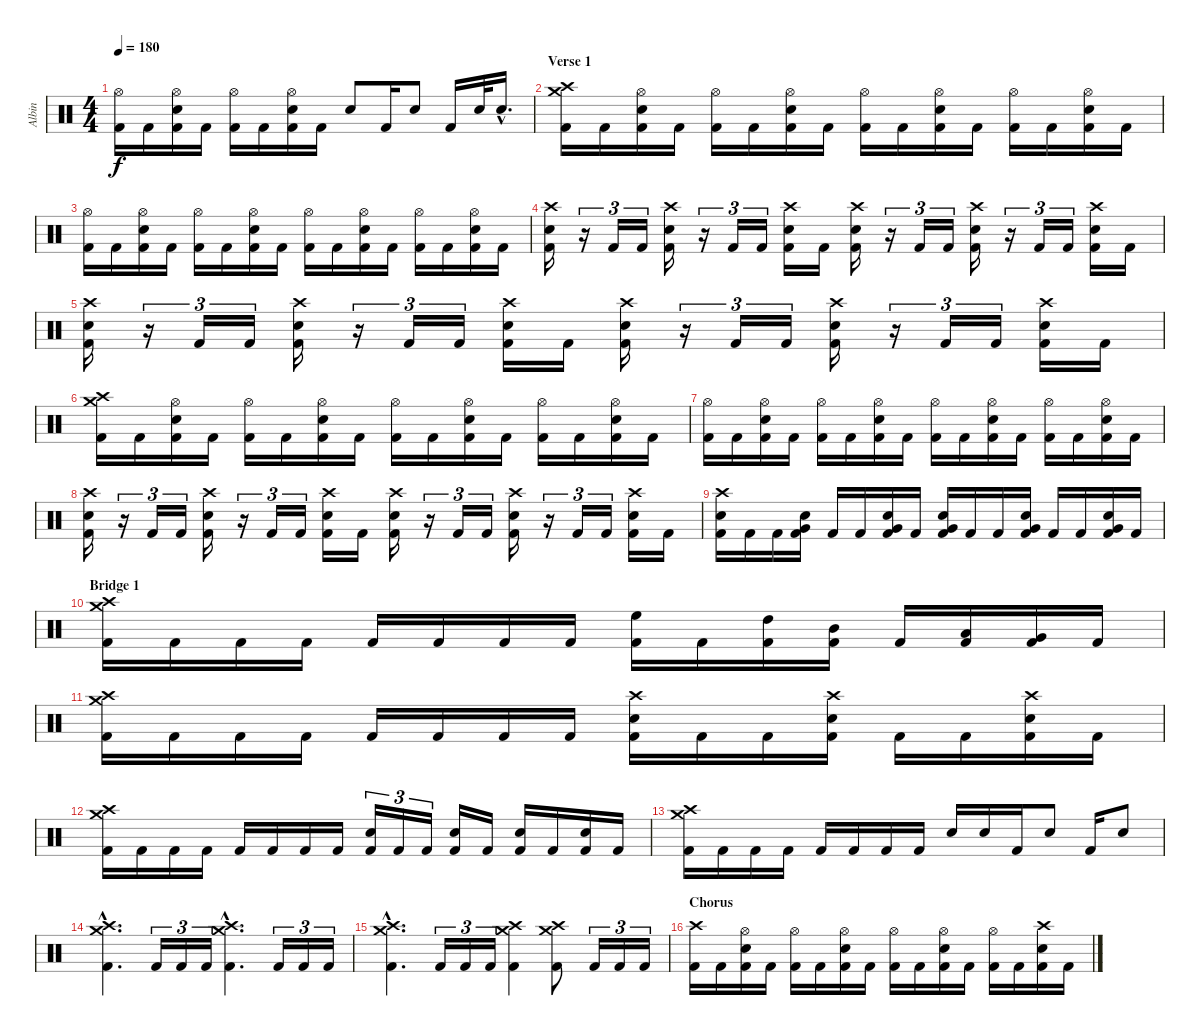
\track ("Albin" "Albin") {instrument percussion}
\staff {score}
\articulation defaults
\ts (4 4)
\tempo 180
\clef neutral
\ks c
("Kick (hit) 2" "Hi-Hat (open)").16{dy f} "Kick (hit) 2".16 ("Kick (hit) 2" "Electric Snare (hit)" "Hi-Hat (open)").16 "Kick (hit) 2".16 ("Kick (hit) 2" "Hi-Hat (open)").16 "Kick (hit) 2".16 ("Kick (hit) 2" "Electric Snare (hit)" "Hi-Hat (open)").16 "Kick (hit) 2".16 "Electric Snare (hit)".8 "Kick (hit) 2".16 "Electric Snare (hit)".8 "Kick (hit) 2".16 "Electric Snare (hit)".32 "Electric Snare (hit)"{hac}.16{d} |
\section ("" "Verse 1")
("Kick (hit) 2" "Crash high (hit)" "Crash medium (hit)").16 "Kick (hit) 2".16 ("Kick (hit) 2" "Electric Snare (hit)" "Hi-Hat (open)").16 "Kick (hit) 2".16 ("Kick (hit) 2" "Hi-Hat (open)").16 "Kick (hit) 2".16 ("Kick (hit) 2" "Electric Snare (hit)" "Hi-Hat (open)").16 "Kick (hit) 2".16 ("Kick (hit) 2" "Hi-Hat (open)").16 "Kick (hit) 2".16 ("Kick (hit) 2" "Electric Snare (hit)" "Hi-Hat (open)").16 "Kick (hit) 2".16 ("Kick (hit) 2" "Hi-Hat (open)").16 "Kick (hit) 2".16 ("Kick (hit) 2" "Electric Snare (hit)" "Hi-Hat (open)").16 "Kick (hit) 2".16 |
("Kick (hit) 2" "Hi-Hat (open)").16 "Kick (hit) 2".16 ("Kick (hit) 2" "Electric Snare (hit)" "Hi-Hat (open)").16 "Kick (hit) 2".16 ("Kick (hit) 2" "Hi-Hat (open)").16 "Kick (hit) 2".16 ("Kick (hit) 2" "Electric Snare (hit)" "Hi-Hat (open)").16 "Kick (hit) 2".16 ("Kick (hit) 2" "Hi-Hat (open)").16 "Kick (hit) 2".16 ("Kick (hit) 2" "Electric Snare (hit)" "Hi-Hat (open)").16 "Kick (hit) 2".16 ("Kick (hit) 2" "Hi-Hat (open)").16 "Kick (hit) 2".16 ("Kick (hit) 2" "Electric Snare (hit)" "Hi-Hat (open)").16 "Kick (hit) 2".16 |
("Kick (hit) 2" "Electric Snare (hit)" "Crash high (hit)").16 r.16{tu (3 2)} "Kick (hit) 2".16{tu (3 2)} "Kick (hit) 2".16{tu (3 2)} ("Kick (hit) 2" "Electric Snare (hit)" "Crash high (hit)").16 r.16{tu (3 2)} "Kick (hit) 2".16{tu (3 2)} "Kick (hit) 2".16{tu (3 2)} ("Kick (hit) 2" "Electric Snare (hit)" "Crash high (hit)").16 "Kick (hit) 2".16 ("Kick (hit) 2" "Electric Snare (hit)" "Crash high (hit)").16 r.16{tu (3 2)} "Kick (hit) 2".16{tu (3 2)} "Kick (hit) 2".16{tu (3 2)} ("Kick (hit) 2" "Electric Snare (hit)" "Crash high (hit)").16 r.16{tu (3 2)} "Kick (hit) 2".16{tu (3 2)} "Kick (hit) 2".16{tu (3 2)} ("Kick (hit) 2" "Electric Snare (hit)" "Crash high (hit)").16 "Kick (hit) 2".16 |
("Kick (hit) 2" "Electric Snare (hit)" "Crash high (hit)").16 r.16{tu (3 2)} "Kick (hit) 2".16{tu (3 2)} "Kick (hit) 2".16{tu (3 2)} ("Kick (hit) 2" "Electric Snare (hit)" "Crash high (hit)").16 r.16{tu (3 2)} "Kick (hit) 2".16{tu (3 2)} "Kick (hit) 2".16{tu (3 2)} ("Kick (hit) 2" "Electric Snare (hit)" "Crash high (hit)").16 "Kick (hit) 2".16 ("Kick (hit) 2" "Electric Snare (hit)" "Crash high (hit)").16 r.16{tu (3 2)} "Kick (hit) 2".16{tu (3 2)} "Kick (hit) 2".16{tu (3 2)} ("Kick (hit) 2" "Electric Snare (hit)" "Crash high (hit)").16 r.16{tu (3 2)} "Kick (hit) 2".16{tu (3 2)} "Kick (hit) 2".16{tu (3 2)} ("Kick (hit) 2" "Electric Snare (hit)" "Crash high (hit)").16 "Kick (hit) 2".16 |
("Kick (hit) 2" "Crash high (hit)" "Crash medium (hit)").16 "Kick (hit) 2".16 ("Kick (hit) 2" "Electric Snare (hit)" "Hi-Hat (open)").16 "Kick (hit) 2".16 ("Kick (hit) 2" "Hi-Hat (open)").16 "Kick (hit) 2".16 ("Kick (hit) 2" "Electric Snare (hit)" "Hi-Hat (open)").16 "Kick (hit) 2".16 ("Kick (hit) 2" "Hi-Hat (open)").16 "Kick (hit) 2".16 ("Kick (hit) 2" "Electric Snare (hit)" "Hi-Hat (open)").16 "Kick (hit) 2".16 ("Kick (hit) 2" "Hi-Hat (open)").16 "Kick (hit) 2".16 ("Kick (hit) 2" "Electric Snare (hit)" "Hi-Hat (open)").16 "Kick (hit) 2".16 |
("Kick (hit) 2" "Hi-Hat (open)").16 "Kick (hit) 2".16 ("Kick (hit) 2" "Electric Snare (hit)" "Hi-Hat (open)").16 "Kick (hit) 2".16 ("Kick (hit) 2" "Hi-Hat (open)").16 "Kick (hit) 2".16 ("Kick (hit) 2" "Electric Snare (hit)" "Hi-Hat (open)").16 "Kick (hit) 2".16 ("Kick (hit) 2" "Hi-Hat (open)").16 "Kick (hit) 2".16 ("Kick (hit) 2" "Electric Snare (hit)" "Hi-Hat (open)").16 "Kick (hit) 2".16 ("Kick (hit) 2" "Hi-Hat (open)").16 "Kick (hit) 2".16 ("Kick (hit) 2" "Electric Snare (hit)" "Hi-Hat (open)").16 "Kick (hit) 2".16 |
("Kick (hit) 2" "Electric Snare (hit)" "Crash high (hit)").16 r.16{tu (3 2)} "Kick (hit) 2".16{tu (3 2)} "Kick (hit) 2".16{tu (3 2)} ("Kick (hit) 2" "Electric Snare (hit)" "Crash high (hit)").16 r.16{tu (3 2)} "Kick (hit) 2".16{tu (3 2)} "Kick (hit) 2".16{tu (3 2)} ("Kick (hit) 2" "Electric Snare (hit)" "Crash high (hit)").16 "Kick (hit) 2".16 ("Kick (hit) 2" "Electric Snare (hit)" "Crash high (hit)").16 r.16{tu (3 2)} "Kick (hit) 2".16{tu (3 2)} "Kick (hit) 2".16{tu (3 2)} ("Kick (hit) 2" "Electric Snare (hit)" "Crash high (hit)").16 r.16{tu (3 2)} "Kick (hit) 2".16{tu (3 2)} "Kick (hit) 2".16{tu (3 2)} ("Kick (hit) 2" "Electric Snare (hit)" "Crash high (hit)").16 "Kick (hit) 2".16 |
("Kick (hit) 2" "Electric Snare (hit)" "Crash high (hit)").16 "Kick (hit) 2".16 "Kick (hit) 2".16 ("Kick (hit) 2" "Electric Snare (hit)" "Very Low Tom (hit)").16 "Kick (hit) 2".16 "Kick (hit) 2".16 ("Kick (hit) 2" "Electric Snare (hit)" "Very Low Tom (hit)").16 "Kick (hit) 2".16 ("Kick (hit) 2" "Electric Snare (hit)" "Very Low Tom (hit)").16 "Kick (hit) 2".16 "Kick (hit) 2".16 ("Kick (hit) 2" "Electric Snare (hit)" "Very Low Tom (hit)").16 "Kick (hit) 2".16 "Kick (hit) 2".16 ("Kick (hit) 2" "Electric Snare (hit)" "Very Low Tom (hit)").16 "Kick (hit) 2".16 |
\section ("" "Bridge 1")
("Kick (hit) 2" "Crash high (hit)" "Crash medium (hit)").16 "Kick (hit) 2".16 "Kick (hit) 2".16 "Kick (hit) 2".16 "Kick (hit) 2".16 "Kick (hit) 2".16 "Kick (hit) 2".16 "Kick (hit) 2".16 ("Kick (hit) 2" "High Floor Tom (hit)").16 "Kick (hit) 2".16 ("Kick (hit) 2" "High Tom (hit)").16 ("Kick (hit) 2" "Mid Tom (hit)").16 "Kick (hit) 2".16 ("Kick (hit) 2" "Low Tom (hit)").16 ("Kick (hit) 2" "Very Low Tom (hit)").16 "Kick (hit) 2".16 |
("Kick (hit) 2" "Crash high (hit)" "Crash medium (hit)").16 "Kick (hit) 2".16 "Kick (hit) 2".16 "Kick (hit) 2".16 "Kick (hit) 2".16 "Kick (hit) 2".16 "Kick (hit) 2".16 "Kick (hit) 2".16 ("Kick (hit) 2" "Electric Snare (hit)" "Crash high (hit)").16 "Kick (hit) 2".16 "Kick (hit) 2".16 ("Kick (hit) 2" "Electric Snare (hit)" "Crash high (hit)").16 "Kick (hit) 2".16 "Kick (hit) 2".16 ("Kick (hit) 2" "Electric Snare (hit)" "Crash high (hit)").16 "Kick (hit) 2".16 |
("Kick (hit) 2" "Crash high (hit)" "Crash medium (hit)").16 "Kick (hit) 2".16 "Kick (hit) 2".16 "Kick (hit) 2".16 "Kick (hit) 2".16 "Kick (hit) 2".16 "Kick (hit) 2".16 "Kick (hit) 2".16 ("Kick (hit) 2" "Electric Snare (hit)").16{tu (3 2)} "Kick (hit) 2".16{tu (3 2)} "Kick (hit) 2".16{tu (3 2)} ("Kick (hit) 2" "Electric Snare (hit)").16 "Kick (hit) 2".16 ("Kick (hit) 2" "Electric Snare (hit)").16 "Kick (hit) 2".16 ("Kick (hit) 2" "Electric Snare (hit)").16 "Kick (hit) 2".16 |
("Kick (hit) 2" "Crash high (hit)" "Crash medium (hit)").16 "Kick (hit) 2".16 "Kick (hit) 2".16 "Kick (hit) 2".16 "Kick (hit) 2".16 "Kick (hit) 2".16 "Kick (hit) 2".16 "Kick (hit) 2".16 "Electric Snare (hit)".16 "Electric Snare (hit)".16 "Kick (hit) 2".16 "Electric Snare (hit)".8 "Kick (hit) 2".16 "Electric Snare (hit)".8 |
("Kick (hit) 2"{hac} "Crash high (hit)"{hac} "Crash medium (hit)"{hac}).4{d} "Kick (hit) 2".16{tu (3 2)} "Kick (hit) 2".16{tu (3 2)} "Kick (hit) 2".16{tu (3 2)} ("Kick (hit) 2"{hac} "Crash high (hit)"{hac} "Crash medium (hit)"{hac}).4{d} "Kick (hit) 2".16{tu (3 2)} "Kick (hit) 2".16{tu (3 2)} "Kick (hit) 2".16{tu (3 2)} |
("Kick (hit) 2"{hac} "Crash high (hit)"{hac} "Crash medium (hit)"{hac}).4{d} "Kick (hit) 2".16{tu (3 2)} "Kick (hit) 2".16{tu (3 2)} "Kick (hit) 2".16{tu (3 2)} ("Kick (hit) 2" "Crash high (hit)" "Crash medium (hit)").4 ("Kick (hit) 2" "Crash high (hit)" "Crash medium (hit)").8 "Kick (hit) 2".16{tu (3 2)} "Kick (hit) 2".16{tu (3 2)} "Kick (hit) 2".16{tu (3 2)} |
\section ("" "Chorus")
("Kick (hit) 2" "Crash high (hit)").16 "Kick (hit) 2".16 ("Kick (hit) 2" "Electric Snare (hit)" "Hi-Hat (open)").16 "Kick (hit) 2".16 ("Kick (hit) 2" "Hi-Hat (open)").16 "Kick (hit) 2".16 ("Kick (hit) 2" "Electric Snare (hit)" "Hi-Hat (open)").16 "Kick (hit) 2".16 ("Kick (hit) 2" "Hi-Hat (open)").16 "Kick (hit) 2".16 ("Kick (hit) 2" "Electric Snare (hit)" "Hi-Hat (open)").16 "Kick (hit) 2".16 ("Kick (hit) 2" "Hi-Hat (open)").16 "Kick (hit) 2".16 ("Kick (hit) 2" "Electric Snare (hit)" "Crash high (hit)").16 "Kick (hit) 2".16
